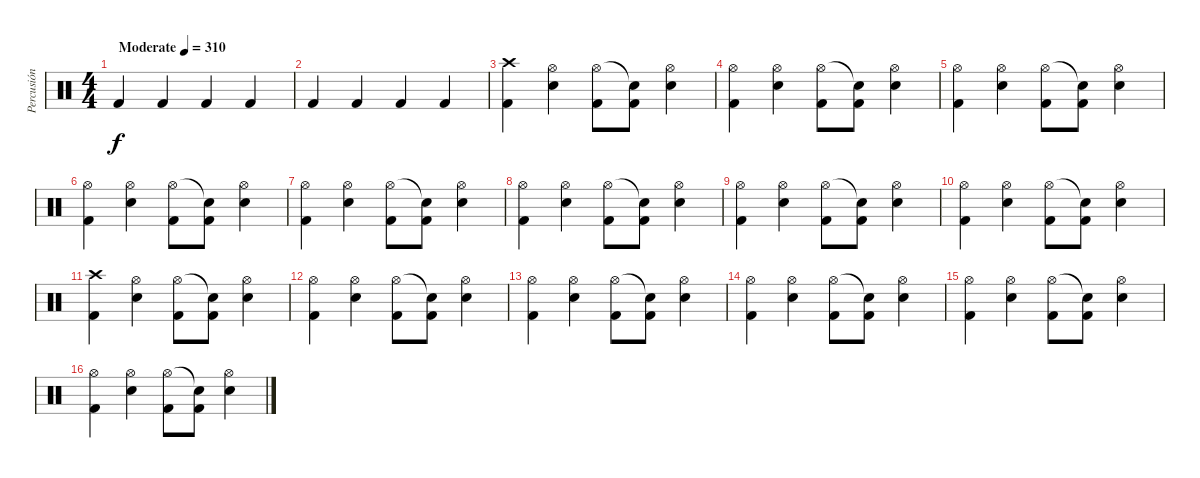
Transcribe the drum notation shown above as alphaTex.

\track ("Percusión" "Percusión") {instrument percussion}
\staff {score}
\articulation defaults
\ts (4 4)
\tempo (310 "Moderate")
\clef neutral
\ks c "Kick (hit) 2".4{dy f} "Kick (hit) 2".4 "Kick (hit) 2".4 "Kick (hit) 2".4
|
"Kick (hit) 2".4 "Kick (hit) 2".4 "Kick (hit) 2".4 "Kick (hit) 2".4 |
("Crash high (hit)" "Kick (hit) 2").4 ("Hi-Hat (open)" "Snare (hit) 2").4 ("Hi-Hat (open)" "Kick (hit) 2").8 ("Snare (hit)"{t} "Kick (hit) 2").8 ("Hi-Hat (open)" "Snare (hit) 2").4 |
("Hi-Hat (open)" "Kick (hit) 2").4 ("Hi-Hat (open)" "Snare (hit) 2").4 ("Hi-Hat (open)" "Kick (hit) 2").8 ("Snare (hit)"{t} "Kick (hit) 2").8 ("Hi-Hat (open)" "Snare (hit) 2").4 |
("Hi-Hat (open)" "Kick (hit) 2").4 ("Hi-Hat (open)" "Snare (hit) 2").4 ("Hi-Hat (open)" "Kick (hit) 2").8 ("Snare (hit)"{t} "Kick (hit) 2").8 ("Hi-Hat (open)" "Snare (hit) 2").4 |
("Hi-Hat (open)" "Kick (hit) 2").4 ("Hi-Hat (open)" "Snare (hit) 2").4 ("Hi-Hat (open)" "Kick (hit) 2").8 ("Snare (hit)"{t} "Kick (hit) 2").8 ("Hi-Hat (open)" "Snare (hit) 2").4 |
("Hi-Hat (open)" "Kick (hit) 2").4 ("Hi-Hat (open)" "Snare (hit) 2").4 ("Hi-Hat (open)" "Kick (hit) 2").8 ("Snare (hit)"{t} "Kick (hit) 2").8 ("Hi-Hat (open)" "Snare (hit) 2").4 |
("Hi-Hat (open)" "Kick (hit) 2").4 ("Hi-Hat (open)" "Snare (hit) 2").4 ("Hi-Hat (open)" "Kick (hit) 2").8 ("Snare (hit)"{t} "Kick (hit) 2").8 ("Hi-Hat (open)" "Snare (hit) 2").4 |
("Hi-Hat (open)" "Kick (hit) 2").4 ("Hi-Hat (open)" "Snare (hit) 2").4 ("Hi-Hat (open)" "Kick (hit) 2").8 ("Snare (hit)"{t} "Kick (hit) 2").8 ("Hi-Hat (open)" "Snare (hit) 2").4 |
("Hi-Hat (open)" "Kick (hit) 2").4 ("Hi-Hat (open)" "Snare (hit) 2").4 ("Hi-Hat (open)" "Kick (hit) 2").8 ("Snare (hit)"{t} "Kick (hit) 2").8 ("Hi-Hat (open)" "Snare (hit) 2").4 |
("Crash high (hit)" "Kick (hit) 2").4 ("Hi-Hat (open)" "Snare (hit) 2").4 ("Hi-Hat (open)" "Kick (hit) 2").8 ("Snare (hit)"{t} "Kick (hit) 2").8 ("Hi-Hat (open)" "Snare (hit) 2").4 |
("Hi-Hat (open)" "Kick (hit) 2").4 ("Hi-Hat (open)" "Snare (hit) 2").4 ("Hi-Hat (open)" "Kick (hit) 2").8 ("Snare (hit)"{t} "Kick (hit) 2").8 ("Hi-Hat (open)" "Snare (hit) 2").4 |
("Hi-Hat (open)" "Kick (hit) 2").4 ("Hi-Hat (open)" "Snare (hit) 2").4 ("Hi-Hat (open)" "Kick (hit) 2").8 ("Snare (hit)"{t} "Kick (hit) 2").8 ("Hi-Hat (open)" "Snare (hit) 2").4 |
("Hi-Hat (open)" "Kick (hit) 2").4 ("Hi-Hat (open)" "Snare (hit) 2").4 ("Hi-Hat (open)" "Kick (hit) 2").8 ("Snare (hit)"{t} "Kick (hit) 2").8 ("Hi-Hat (open)" "Snare (hit) 2").4 |
("Hi-Hat (open)" "Kick (hit) 2").4 ("Hi-Hat (open)" "Snare (hit) 2").4 ("Hi-Hat (open)" "Kick (hit) 2").8 ("Snare (hit)"{t} "Kick (hit) 2").8 ("Hi-Hat (open)" "Snare (hit) 2").4 |
("Hi-Hat (open)" "Kick (hit) 2").4 ("Hi-Hat (open)" "Snare (hit) 2").4 ("Hi-Hat (open)" "Kick (hit) 2").8 ("Snare (hit)"{t} "Kick (hit) 2").8 ("Hi-Hat (open)" "Snare (hit) 2").4
